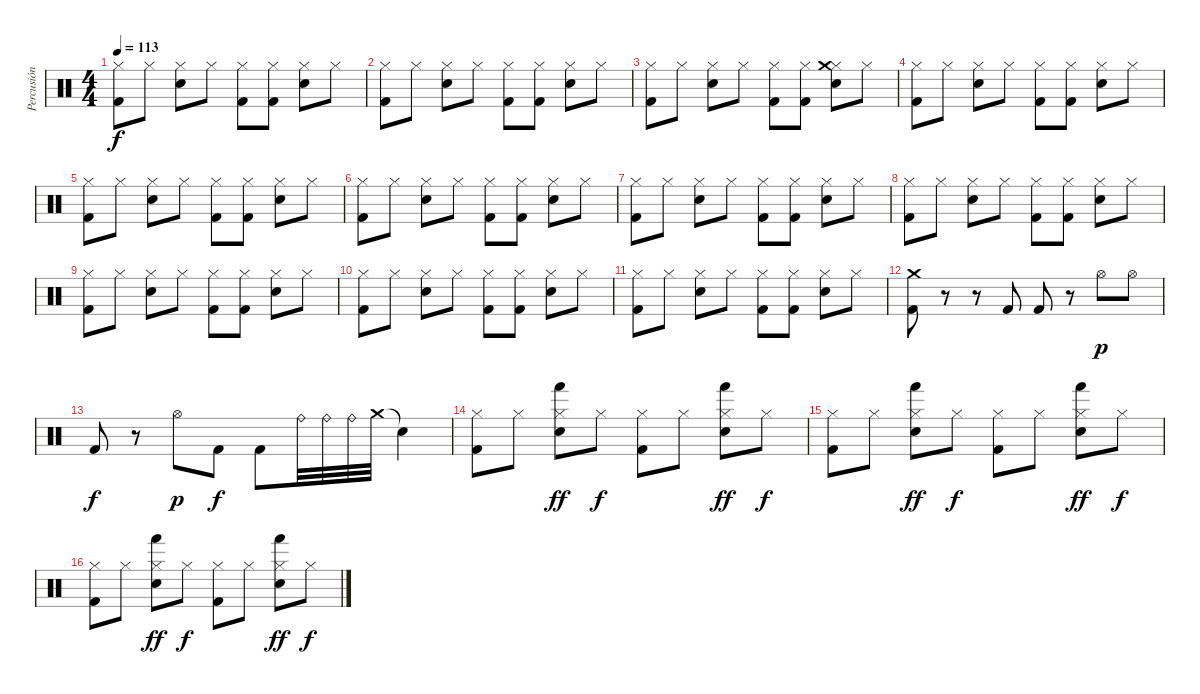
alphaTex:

\track ("Percusión" "Percusión") {instrument percussion}
\staff {score}
\articulation defaults
\ts (4 4)
\tempo 113
\clef neutral
\ks c
("Kick (hit) 2" "Hi-Hat (closed)").8{dy f} "Hi-Hat (closed)".8 ("Electric Snare (hit)" "Hi-Hat (closed)").8 "Hi-Hat (closed)".8 ("Kick (hit) 2" "Hi-Hat (closed)").8 ("Kick (hit) 2" "Hi-Hat (closed)").8 ("Electric Snare (hit)" "Hi-Hat (closed)").8 "Hi-Hat (closed)".8 |
("Kick (hit) 2" "Hi-Hat (closed)").8 "Hi-Hat (closed)".8 ("Electric Snare (hit)" "Hi-Hat (closed)").8 "Hi-Hat (closed)".8 ("Kick (hit) 2" "Hi-Hat (closed)").8 ("Kick (hit) 2" "Hi-Hat (closed)").8 ("Electric Snare (hit)" "Hi-Hat (closed)").8 "Hi-Hat (closed)".8 |
("Kick (hit) 2" "Hi-Hat (closed)").8 "Hi-Hat (closed)".8 ("Electric Snare (hit)" "Hi-Hat (closed)").8 "Hi-Hat (closed)".8 ("Kick (hit) 2" "Hi-Hat (closed)").8 ("Kick (hit) 2" "Hi-Hat (closed)").8 ("Electric Snare (hit)" "Hi-Hat (closed)" "Crash medium (hit)").8 "Hi-Hat (closed)".8 |
("Kick (hit) 2" "Hi-Hat (closed)").8 "Hi-Hat (closed)".8 ("Electric Snare (hit)" "Hi-Hat (closed)").8 "Hi-Hat (closed)".8 ("Kick (hit) 2" "Hi-Hat (closed)").8 ("Kick (hit) 2" "Hi-Hat (closed)").8 ("Electric Snare (hit)" "Hi-Hat (closed)").8 "Hi-Hat (closed)".8 |
("Kick (hit) 2" "Hi-Hat (closed)").8 "Hi-Hat (closed)".8 ("Electric Snare (hit)" "Hi-Hat (closed)").8 "Hi-Hat (closed)".8 ("Kick (hit) 2" "Hi-Hat (closed)").8 ("Kick (hit) 2" "Hi-Hat (closed)").8 ("Electric Snare (hit)" "Hi-Hat (closed)").8 "Hi-Hat (closed)".8 |
("Kick (hit) 2" "Hi-Hat (closed)").8 "Hi-Hat (closed)".8 ("Electric Snare (hit)" "Hi-Hat (closed)").8 "Hi-Hat (closed)".8 ("Kick (hit) 2" "Hi-Hat (closed)").8 ("Kick (hit) 2" "Hi-Hat (closed)").8 ("Electric Snare (hit)" "Hi-Hat (closed)").8 "Hi-Hat (closed)".8 |
("Kick (hit) 2" "Hi-Hat (closed)").8 "Hi-Hat (closed)".8 ("Electric Snare (hit)" "Hi-Hat (closed)").8 "Hi-Hat (closed)".8 ("Kick (hit) 2" "Hi-Hat (closed)").8 ("Kick (hit) 2" "Hi-Hat (closed)").8 ("Electric Snare (hit)" "Hi-Hat (closed)").8 "Hi-Hat (closed)".8 |
("Kick (hit) 2" "Hi-Hat (closed)").8 "Hi-Hat (closed)".8 ("Electric Snare (hit)" "Hi-Hat (closed)").8 "Hi-Hat (closed)".8 ("Kick (hit) 2" "Hi-Hat (closed)").8 ("Kick (hit) 2" "Hi-Hat (closed)").8 ("Electric Snare (hit)" "Hi-Hat (closed)").8 "Hi-Hat (closed)".8 |
("Kick (hit) 2" "Hi-Hat (closed)").8 "Hi-Hat (closed)".8 ("Electric Snare (hit)" "Hi-Hat (closed)").8 "Hi-Hat (closed)".8 ("Kick (hit) 2" "Hi-Hat (closed)").8 ("Kick (hit) 2" "Hi-Hat (closed)").8 ("Electric Snare (hit)" "Hi-Hat (closed)").8 "Hi-Hat (closed)".8 |
("Kick (hit) 2" "Hi-Hat (closed)").8 "Hi-Hat (closed)".8 ("Electric Snare (hit)" "Hi-Hat (closed)").8 "Hi-Hat (closed)".8 ("Kick (hit) 2" "Hi-Hat (closed)").8 ("Kick (hit) 2" "Hi-Hat (closed)").8 ("Electric Snare (hit)" "Hi-Hat (closed)").8 "Hi-Hat (closed)".8 |
("Kick (hit) 2" "Hi-Hat (closed)").8 "Hi-Hat (closed)".8 ("Electric Snare (hit)" "Hi-Hat (closed)").8 "Hi-Hat (closed)".8 ("Kick (hit) 2" "Hi-Hat (closed)").8 ("Kick (hit) 2" "Hi-Hat (closed)").8 ("Electric Snare (hit)" "Hi-Hat (closed)").8 "Hi-Hat (closed)".8 |
("Kick (hit) 2" "Crash medium (hit)").8 r.8 r.8 "Kick (hit) 2".8 "Kick (hit) 2".8 r.8 "Hi-Hat (open)".8{dy p} "Hi-Hat (open)".8 |
"Kick (hit) 2".8{dy f} r.8 "Hi-Hat (open)".8{dy p} "Kick (hit) 2".8{dy f} "Kick (hit) 2".8 "Ride (bell)".32 "Ride (bell)".32 "Ride (bell)".32 "Crash medium (hit)".32 "Snare (hit)"{t}.4 |
("Kick (hit) 2" "Hi-Hat (closed)").8 "Hi-Hat (closed)".8 ("Electric Snare (hit)" "Hi-Hat (closed)" "Hand (hit)").8{dy ff} "Hi-Hat (closed)".8{dy f} ("Kick (hit) 2" "Hi-Hat (closed)").8 "Hi-Hat (closed)".8 ("Electric Snare (hit)" "Hi-Hat (closed)" "Hand (hit)").8{dy ff} "Hi-Hat (closed)".8{dy f} |
("Kick (hit) 2" "Hi-Hat (closed)").8 "Hi-Hat (closed)".8 ("Electric Snare (hit)" "Hi-Hat (closed)" "Hand (hit)").8{dy ff} "Hi-Hat (closed)".8{dy f} ("Kick (hit) 2" "Hi-Hat (closed)").8 "Hi-Hat (closed)".8 ("Electric Snare (hit)" "Hi-Hat (closed)" "Hand (hit)").8{dy ff} "Hi-Hat (closed)".8{dy f} |
("Kick (hit) 2" "Hi-Hat (closed)").8 "Hi-Hat (closed)".8 ("Electric Snare (hit)" "Hi-Hat (closed)" "Hand (hit)").8{dy ff} "Hi-Hat (closed)".8{dy f} ("Kick (hit) 2" "Hi-Hat (closed)").8 "Hi-Hat (closed)".8 ("Electric Snare (hit)" "Hi-Hat (closed)" "Hand (hit)").8{dy ff} "Hi-Hat (closed)".8{dy f}
